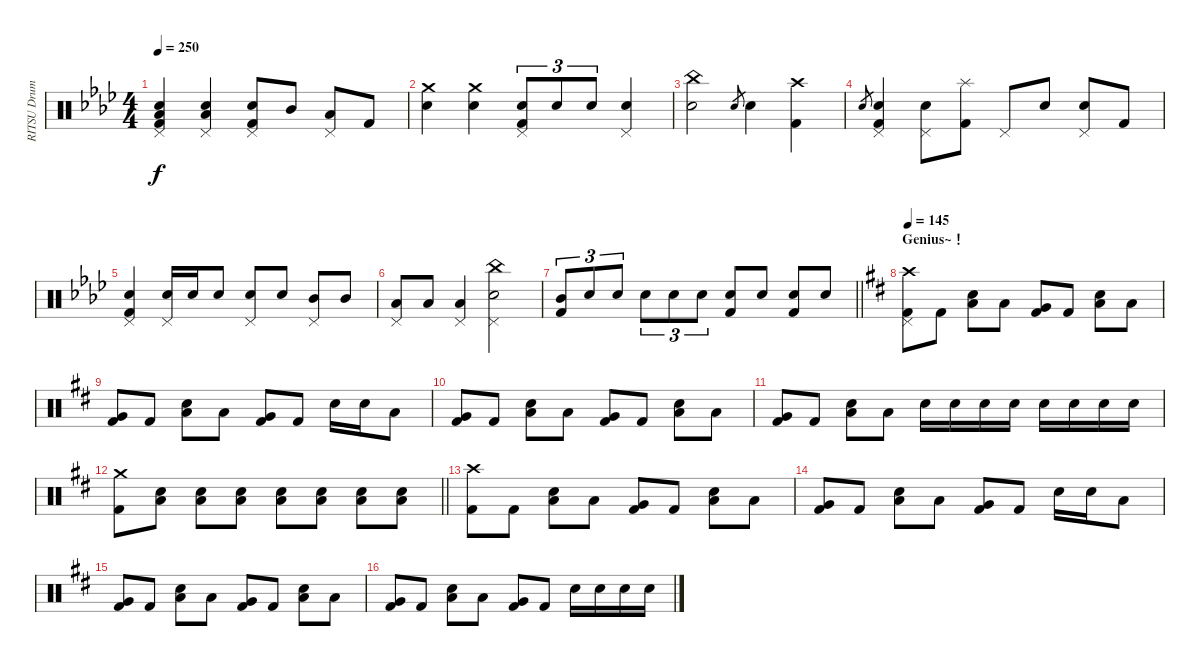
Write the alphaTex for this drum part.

\track ("RITSU Drums" "RITSU Drum") {instrument percussion}
\staff {score}
\articulation defaults
\ts (4 4)
\tempo 250
\clef neutral
\ks ab
("Pedal Hi-Hat (hit)" "Electric Snare (hit)" "Low Floor Tom (hit)" "Kick (hit) 2").4{dy f} ("Pedal Hi-Hat (hit)" "Electric Snare (hit)" "Low Floor Tom (hit)").4 ("Pedal Hi-Hat (hit)" "Electric Snare (hit)" "Kick (hit) 2").8 "Mid Tom (hit)".8 ("Pedal Hi-Hat (hit)" "Low Floor Tom (hit)").8 "Kick (hit) 2".8 |
("Crash medium (hit)" "Electric Snare (hit)").4 ("Crash medium (hit)" "Electric Snare (hit)").4 ("Pedal Hi-Hat (hit)" "Electric Snare (hit)" "Kick (hit) 2").8{tu (3 2)} "Electric Snare (hit)".8{tu (3 2)} "Electric Snare (hit)".8{tu (3 2)} ("Pedal Hi-Hat (hit)" "Electric Snare (hit)").4 |
("China (hit)" "Electric Snare (hit)").2 "Electric Snare (hit)".8{gr} "Electric Snare (hit)".4 ("Crash high (hit)" "Kick (hit) 2").4 |
"Electric Snare (hit)".8{gr} ("Pedal Hi-Hat (hit)" "Electric Snare (hit)" "Kick (hit) 2").4 ("Pedal Hi-Hat (hit)" "Electric Snare (hit)").8 ("Splash (hit)" "Kick (hit) 2").8 "Pedal Hi-Hat (hit)".8 "Electric Snare (hit)".8 ("Pedal Hi-Hat (hit)" "Electric Snare (hit)").8 "Kick (hit) 2".8 |
("Pedal Hi-Hat (hit)" "Electric Snare (hit)" "Kick (hit) 2").4 ("Pedal Hi-Hat (hit)" "Electric Snare (hit)").16 "Electric Snare (hit)".16 "Electric Snare (hit)".8 ("Pedal Hi-Hat (hit)" "Electric Snare (hit)").8 "Electric Snare (hit)".8 ("Pedal Hi-Hat (hit)" "Mid Tom (hit)").8 "Mid Tom (hit)".8 |
("Pedal Hi-Hat (hit)" "Low Tom (hit)").8 "Low Tom (hit)".8 ("Pedal Hi-Hat (hit)" "Low Tom (hit)").4 ("China (hit)" "Pedal Hi-Hat (hit)" "Electric Snare (hit)").2 |
\barLineRight lightlight
("Mid Tom (hit)" "Kick (hit) 2").8{tu (3 2)} "Electric Snare (hit)".8{tu (3 2)} "Electric Snare (hit)".8{tu (3 2)} "Electric Snare (hit)".8{tu (3 2)} "Electric Snare (hit)".8{tu (3 2)} "Electric Snare (hit)".8{tu (3 2)} ("Electric Snare (hit)" "Kick (hit) 2").8 "Electric Snare (hit)".8 ("Electric Snare (hit)" "Kick (hit) 2").8 "Electric Snare (hit)".8 |
\section ("" "Genius~！")
\tempo 145
\ks d
("Crash high (hit)" "Pedal Hi-Hat (hit)" "Kick (hit) 2").8 "Kick (hit) 2".8 ("Snare (hit) 2" "Low Floor Tom (hit)").8 "Low Tom (hit)".8 ("Very Low Tom (hit)" "Kick (hit) 2").8 "Kick (hit) 2".8 ("Snare (hit) 2" "Low Floor Tom (hit)").8 "Low Tom (hit)".8 |
("Very Low Tom (hit)" "Kick (hit) 2").8 "Kick (hit) 2".8 ("Snare (hit) 2" "Low Floor Tom (hit)").8 "Low Tom (hit)".8 ("Very Low Tom (hit)" "Kick (hit) 2").8 "Kick (hit) 2".8 "Snare (hit) 2".16 "Snare (hit) 2".16 "Low Tom (hit)".8 |
("Very Low Tom (hit)" "Kick (hit) 2").8 "Kick (hit) 2".8 ("Snare (hit) 2" "Low Floor Tom (hit)").8 "Low Tom (hit)".8 ("Very Low Tom (hit)" "Kick (hit) 2").8 "Kick (hit) 2".8 ("Snare (hit) 2" "Low Floor Tom (hit)").8 "Low Tom (hit)".8 |
("Very Low Tom (hit)" "Kick (hit) 2").8 "Kick (hit) 2".8 ("Snare (hit) 2" "Low Floor Tom (hit)").8 "Low Tom (hit)".8 "Snare (hit) 2".16 "Snare (hit) 2".16 "Snare (hit) 2".16 "Snare (hit) 2".16 "Snare (hit) 2".16 "Snare (hit) 2".16 "Snare (hit) 2".16 "Snare (hit) 2".16 |
\barLineRight lightlight
("Crash medium (hit)" "Kick (hit) 2").8 ("Snare (hit) 2" "Low Floor Tom (hit)").8 ("Snare (hit) 2" "Low Floor Tom (hit)").8 ("Snare (hit) 2" "Low Floor Tom (hit)").8 ("Snare (hit) 2" "Low Floor Tom (hit)").8 ("Snare (hit) 2" "Low Floor Tom (hit)").8 ("Snare (hit) 2" "Low Floor Tom (hit)").8 ("Snare (hit) 2" "Low Floor Tom (hit)").8 |
("Crash high (hit)" "Kick (hit) 2").8 "Kick (hit) 2".8 ("Snare (hit) 2" "Low Floor Tom (hit)").8 "Low Tom (hit)".8 ("Very Low Tom (hit)" "Kick (hit) 2").8 "Kick (hit) 2".8 ("Snare (hit) 2" "Low Floor Tom (hit)").8 "Low Tom (hit)".8 |
("Very Low Tom (hit)" "Kick (hit) 2").8 "Kick (hit) 2".8 ("Snare (hit) 2" "Low Floor Tom (hit)").8 "Low Tom (hit)".8 ("Very Low Tom (hit)" "Kick (hit) 2").8 "Kick (hit) 2".8 "Snare (hit) 2".16 "Snare (hit) 2".16 "Low Tom (hit)".8 |
("Very Low Tom (hit)" "Kick (hit) 2").8 "Kick (hit) 2".8 ("Snare (hit) 2" "Low Floor Tom (hit)").8 "Low Tom (hit)".8 ("Very Low Tom (hit)" "Kick (hit) 2").8 "Kick (hit) 2".8 ("Snare (hit) 2" "Low Floor Tom (hit)").8 "Low Tom (hit)".8 |
("Very Low Tom (hit)" "Kick (hit) 2").8 "Kick (hit) 2".8 ("Snare (hit) 2" "Low Floor Tom (hit)").8 "Low Tom (hit)".8 ("Very Low Tom (hit)" "Kick (hit) 2").8 "Kick (hit) 2".8 "Snare (hit) 2".16 "Snare (hit) 2".16 "Snare (hit) 2".16 "Snare (hit) 2".16
